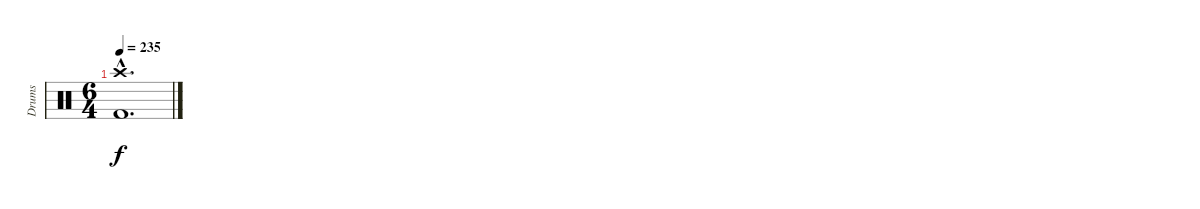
\track ("Drums" "Drums") {instrument percussion}
\staff {score}
\articulation defaults
\ts (6 4)
\tempo 235
\clef neutral
\ks c
("Kick (hit) 2"{hac} "Crash high (hit)"{hac}).1{d dy f}
